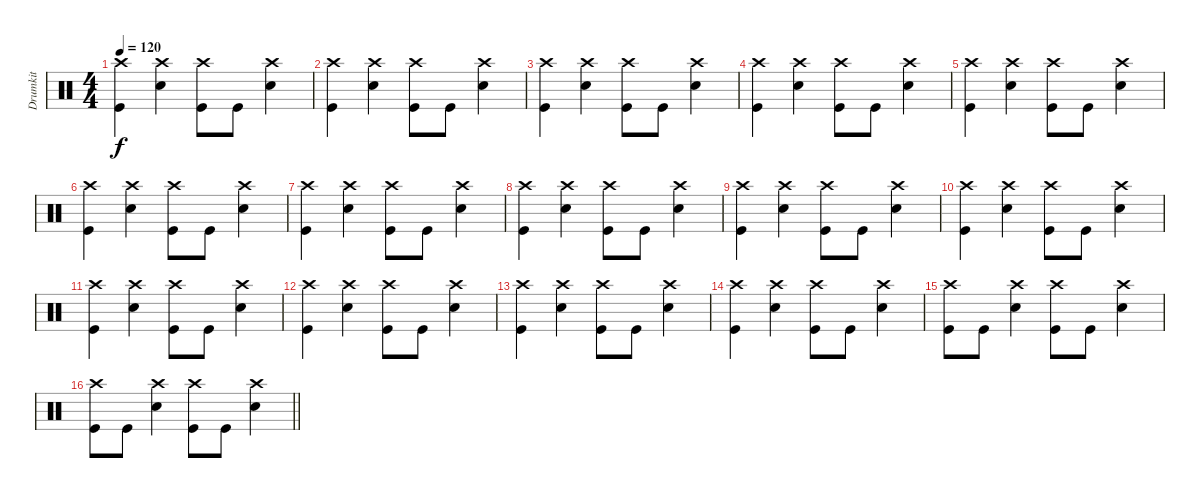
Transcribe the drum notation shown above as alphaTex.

\track ("Drumkit" "Drumkit") {instrument percussion}
\staff {score}
\articulation defaults
\ts (4 4)
\tempo 120
\clef neutral
\ks c
("Crash high (hit)" "Kick (hit)").4{dy f} ("Crash high (hit)" "Snare (hit) 2").4 ("Crash high (hit)" "Kick (hit)").8 "Kick (hit)".8 ("Crash high (hit)" "Snare (hit) 2").4 |
("Crash high (hit)" "Kick (hit)").4 ("Crash high (hit)" "Snare (hit) 2").4 ("Crash high (hit)" "Kick (hit)").8 "Kick (hit)".8 ("Crash high (hit)" "Snare (hit) 2").4 |
("Crash high (hit)" "Kick (hit)").4 ("Crash high (hit)" "Snare (hit) 2").4 ("Crash high (hit)" "Kick (hit)").8 "Kick (hit)".8 ("Crash high (hit)" "Snare (hit) 2").4 |
("Crash high (hit)" "Kick (hit)").4 ("Crash high (hit)" "Snare (hit) 2").4 ("Crash high (hit)" "Kick (hit)").8 "Kick (hit)".8 ("Crash high (hit)" "Snare (hit) 2").4 |
("Crash high (hit)" "Kick (hit)").4 ("Crash high (hit)" "Snare (hit) 2").4 ("Crash high (hit)" "Kick (hit)").8 "Kick (hit)".8 ("Crash high (hit)" "Snare (hit) 2").4 |
("Crash high (hit)" "Kick (hit)").4 ("Crash high (hit)" "Snare (hit) 2").4 ("Crash high (hit)" "Kick (hit)").8 "Kick (hit)".8 ("Crash high (hit)" "Snare (hit) 2").4 |
("Crash high (hit)" "Kick (hit)").4 ("Crash high (hit)" "Snare (hit) 2").4 ("Crash high (hit)" "Kick (hit)").8 "Kick (hit)".8 ("Crash high (hit)" "Snare (hit) 2").4 |
("Crash high (hit)" "Kick (hit)").4 ("Crash high (hit)" "Snare (hit) 2").4 ("Crash high (hit)" "Kick (hit)").8 "Kick (hit)".8 ("Crash high (hit)" "Snare (hit) 2").4 |
("Crash high (hit)" "Kick (hit)").4 ("Crash high (hit)" "Snare (hit) 2").4 ("Crash high (hit)" "Kick (hit)").8 "Kick (hit)".8 ("Crash high (hit)" "Snare (hit) 2").4 |
("Crash high (hit)" "Kick (hit)").4 ("Crash high (hit)" "Snare (hit) 2").4 ("Crash high (hit)" "Kick (hit)").8 "Kick (hit)".8 ("Crash high (hit)" "Snare (hit) 2").4 |
("Crash high (hit)" "Kick (hit)").4 ("Crash high (hit)" "Snare (hit) 2").4 ("Crash high (hit)" "Kick (hit)").8 "Kick (hit)".8 ("Crash high (hit)" "Snare (hit) 2").4 |
("Crash high (hit)" "Kick (hit)").4 ("Crash high (hit)" "Snare (hit) 2").4 ("Crash high (hit)" "Kick (hit)").8 "Kick (hit)".8 ("Crash high (hit)" "Snare (hit) 2").4 |
("Crash high (hit)" "Kick (hit)").4 ("Crash high (hit)" "Snare (hit) 2").4 ("Crash high (hit)" "Kick (hit)").8 "Kick (hit)".8 ("Crash high (hit)" "Snare (hit) 2").4 |
("Crash high (hit)" "Kick (hit)").4 ("Crash high (hit)" "Snare (hit) 2").4 ("Crash high (hit)" "Kick (hit)").8 "Kick (hit)".8 ("Crash high (hit)" "Snare (hit) 2").4 |
("Crash high (hit)" "Kick (hit)").8 "Kick (hit)".8 ("Crash high (hit)" "Snare (hit) 2").4 ("Crash high (hit)" "Kick (hit)").8 "Kick (hit)".8 ("Crash high (hit)" "Snare (hit) 2").4 |
\barLineRight lightlight
("Crash high (hit)" "Kick (hit)").8 "Kick (hit)".8 ("Crash high (hit)" "Snare (hit) 2").4 ("Crash high (hit)" "Kick (hit)").8 "Kick (hit)".8 ("Crash high (hit)" "Snare (hit) 2").4
